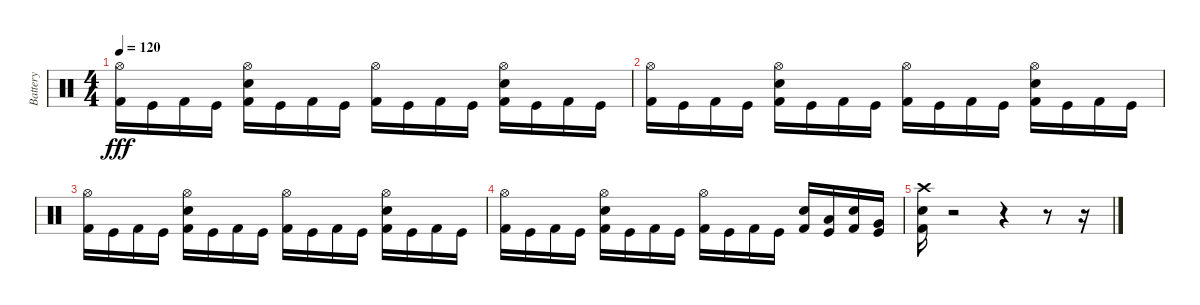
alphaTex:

\track ("Battery" "Battery") {instrument percussion}
\staff {score}
\articulation defaults
\ts (4 4)
\tempo 120
\clef neutral
\ks c
("Hi-Hat (open)" "Kick (hit) 2").16{dy fff} "Kick (hit)".16 "Kick (hit) 2".16 "Kick (hit)".16 ("Electric Snare (hit)" "Hi-Hat (open)" "Kick (hit) 2").16 "Kick (hit)".16 "Kick (hit) 2".16 "Kick (hit)".16 ("Hi-Hat (open)" "Kick (hit) 2").16 "Kick (hit)".16 "Kick (hit) 2".16 "Kick (hit)".16 ("Electric Snare (hit)" "Hi-Hat (open)" "Kick (hit) 2").16 "Kick (hit)".16 "Kick (hit) 2".16 "Kick (hit)".16 |
("Hi-Hat (open)" "Kick (hit) 2").16 "Kick (hit)".16 "Kick (hit) 2".16 "Kick (hit)".16 ("Hi-Hat (open)" "Electric Snare (hit)" "Kick (hit) 2").16 "Kick (hit)".16 "Kick (hit) 2".16 "Kick (hit)".16 ("Hi-Hat (open)" "Kick (hit) 2").16 "Kick (hit)".16 "Kick (hit) 2".16 "Kick (hit)".16 ("Electric Snare (hit)" "Hi-Hat (open)" "Kick (hit) 2").16 "Kick (hit)".16 "Kick (hit) 2".16 "Kick (hit)".16 |
("Hi-Hat (open)" "Kick (hit) 2").16 "Kick (hit)".16 "Kick (hit) 2".16 "Kick (hit)".16 ("Electric Snare (hit)" "Hi-Hat (open)" "Kick (hit) 2").16 "Kick (hit)".16 "Kick (hit) 2".16 "Kick (hit)".16 ("Hi-Hat (open)" "Kick (hit) 2").16 "Kick (hit)".16 "Kick (hit) 2".16 "Kick (hit)".16 ("Hi-Hat (open)" "Electric Snare (hit)" "Kick (hit) 2").16 "Kick (hit)".16 "Kick (hit) 2".16 "Kick (hit)".16 |
("Hi-Hat (open)" "Kick (hit) 2").16 "Kick (hit)".16 "Kick (hit) 2".16 "Kick (hit)".16 ("Hi-Hat (open)" "Electric Snare (hit)" "Kick (hit) 2").16 "Kick (hit)".16 "Kick (hit) 2".16 "Kick (hit)".16 ("Hi-Hat (open)" "Kick (hit) 2").16 "Kick (hit)".16 "Kick (hit) 2".16 "Kick (hit)".16 ("Electric Snare (hit)" "Kick (hit) 2").16 ("Low Tom (hit)" "Kick (hit)").16 ("Electric Snare (hit)" "Kick (hit) 2").16 ("Very Low Tom (hit)" "Kick (hit)").16 |
("Crash high (hit)" "Electric Snare (hit)" "Kick (hit) 2").16 r.2 r.4 r.8 r.16
